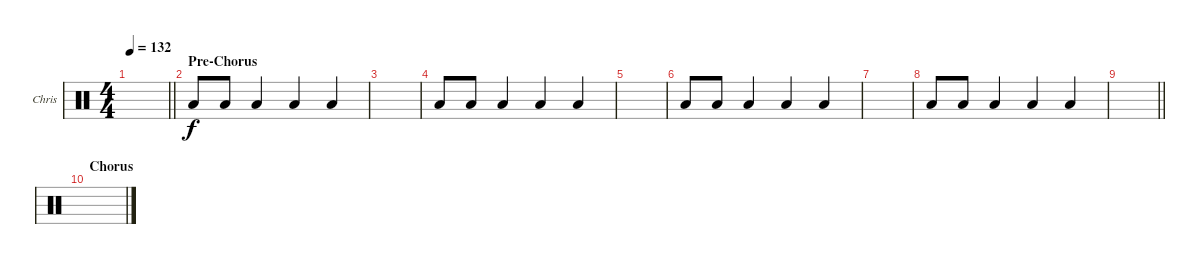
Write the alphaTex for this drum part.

\bracketExtendMode groupsimilarinstruments
\firstSystemTrackNameOrientation horizontal
\otherSystemsTrackNameOrientation horizontal
\track ("Chris Fehn" "Chris") {instrument percussion}
\staff {score}
\articulation defaults
\ts (4 4)
\tempo 132
\clef neutral
\barLineRight lightlight
\ks c
|
\section ("" "Pre-Chorus")
"Low Tom (hit)".8 "Low Tom (hit)".8 "Low Tom (hit)".4 "Low Tom (hit)".4 "Low Tom (hit)".4 |
|
"Low Tom (hit)".8 "Low Tom (hit)".8 "Low Tom (hit)".4 "Low Tom (hit)".4 "Low Tom (hit)".4 |
|
"Low Tom (hit)".8 "Low Tom (hit)".8 "Low Tom (hit)".4 "Low Tom (hit)".4 "Low Tom (hit)".4 |
|
"Low Tom (hit)".8 "Low Tom (hit)".8 "Low Tom (hit)".4 "Low Tom (hit)".4 "Low Tom (hit)".4 |
\barLineRight lightlight
|
\section ("" "Chorus")
